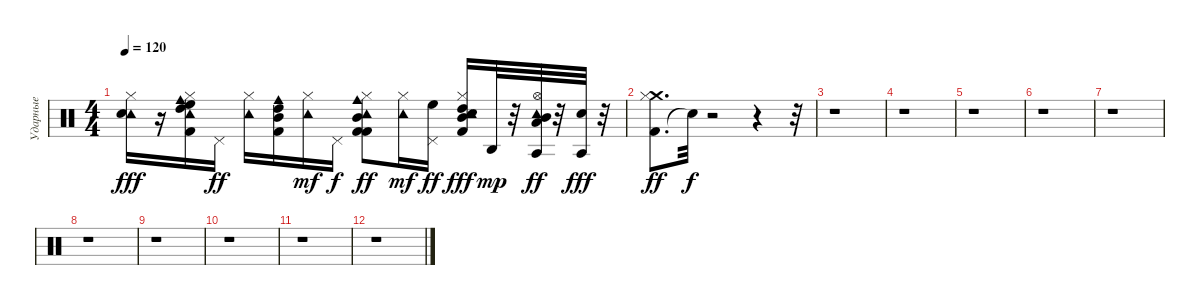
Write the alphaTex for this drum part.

\track ("Ударные" "Ударные") {instrument percussion}
\staff {score}
\articulation defaults
\ts (4 4)
\tempo 120
\clef neutral
\ks c
("Tambourine (hit)" "Electric Snare (hit)" "Hi-Hat (closed)").16{dy fff} r.16 ("Tambourine (hit)" "Cowbell medium (hit)" "Hi-Hat (closed)" "Kick (hit) 2" "High Floor Tom (hit)" "High Tom (hit)").16 "Pedal Hi-Hat (hit)".16{dy ff} ("Tambourine (hit)" "Hi-Hat (closed)").16 ("Cowbell medium (hit)" "Kick (hit) 2" "High Tom (hit)" "Mid Tom (hit)").16 ("Tambourine (hit)" "Hi-Hat (closed)").16{dy mf} "Pedal Hi-Hat (hit)".16{dy f} ("Tambourine (hit)" "Cowbell medium (hit)" "Kick (hit) 2" "Hi-Hat (closed)" "Kick (hit) 2" "Mid Tom (hit)").8{dy ff} ("Tambourine (hit)" "Hi-Hat (closed)").16{dy mf} ("Pedal Hi-Hat (hit)" "High Floor Tom (hit)").16{dy ff} ("Tambourine (hit)" "High Tom (hit)" "Hi-Hat (closed)" "Kick (hit) 2" "Electric Snare (hit)" "Mid Tom (hit)").16{dy fff} "Agogo high (hit)".32{dy mp} r.32 ("Agogo tow (hit)" "Tambourine (hit)" "Hi-Hat (open)" "Mid Tom (hit)" "Low Tom (hit)").32{dy ff} r.32 ("Agogo tow (hit)" "Electric Snare (hit)").32{dy fff} r.32 |
("Kick (hit) 2" "Crash medium (hit)" "Hi-Hat (closed)").8{d dy ff} "Snare (hit)"{t}.32{dy f} r.2 r.4 r.32 |
r.1 |
r.1 |
r.1 |
r.1 |
r.1 |
r.1 |
r.1 |
r.1 |
r.1 |
r.1
